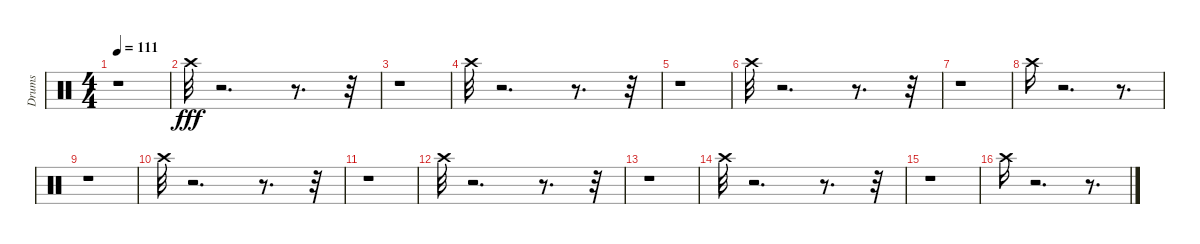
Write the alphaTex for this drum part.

\track ("Drums" "Drums") {instrument percussion}
\staff {score}
\articulation defaults
\ts (4 4)
\tempo 111
\clef neutral
\ks c
r.1{dy fff} |
"Crash high (hit)".32 r.2{d} r.8{d} r.32 |
r.1 |
"Crash high (hit)".32 r.2{d} r.8{d} r.32 |
r.1 |
"Crash high (hit)".32 r.2{d} r.8{d} r.32 |
r.1 |
"Crash high (hit)".16 r.2{d} r.8{d} |
r.1 |
"Crash high (hit)".32 r.2{d} r.8{d} r.32 |
r.1 |
"Crash high (hit)".32 r.2{d} r.8{d} r.32 |
r.1 |
"Crash high (hit)".32 r.2{d} r.8{d} r.32 |
r.1 |
"Crash high (hit)".16 r.2{d} r.8{d}
